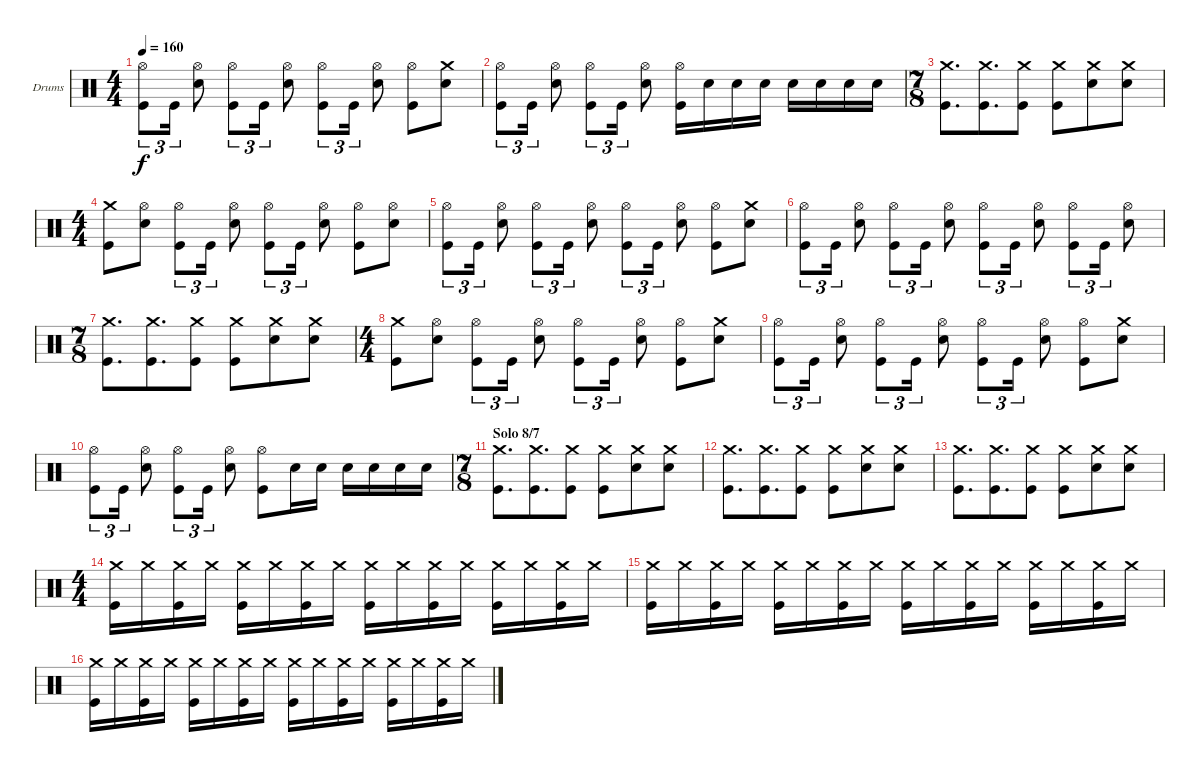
\bracketExtendMode groupsimilarinstruments
\firstSystemTrackNameOrientation horizontal
\otherSystemsTrackNameOrientation horizontal
\track ("Drums" "Drums") {instrument percussion}
\staff {score}
\articulation defaults
\ts (4 4)
\tempo 160
\clef neutral
\ks c
("Hi-Hat (open)" "Kick (hit)").8{tu (3 2) dy f} "Kick (hit)".16{tu (3 2)} ("Hi-Hat (open)" "Snare (hit) 2").8 ("Hi-Hat (open)" "Kick (hit)").8{tu (3 2)} "Kick (hit)".16{tu (3 2)} ("Hi-Hat (open)" "Snare (hit) 2").8 ("Hi-Hat (open)" "Kick (hit)").8{tu (3 2)} "Kick (hit)".16{tu (3 2)} ("Hi-Hat (open)" "Snare (hit) 2").8 ("Hi-Hat (open)" "Kick (hit)").8 ("Snare (hit) 2" "Crash medium (hit)").8 |
("Hi-Hat (open)" "Kick (hit)").8{tu (3 2)} "Kick (hit)".16{tu (3 2)} ("Snare (hit) 2" "Hi-Hat (open)").8 ("Hi-Hat (open)" "Kick (hit)").8{tu (3 2)} "Kick (hit)".16{tu (3 2)} ("Hi-Hat (open)" "Snare (hit) 2").8 ("Hi-Hat (open)" "Kick (hit)").16 "Snare (hit) 2".16 "Snare (hit) 2".16 "Snare (hit) 2".16 "Snare (hit) 2".16 "Snare (hit) 2".16 "Snare (hit) 2".16 "Snare (hit) 2".16 |
\ts (7 8)
("Crash medium (hit)" "Kick (hit)").8{d} ("Crash medium (hit)" "Kick (hit)").8{d} ("Crash medium (hit)" "Kick (hit)").8 ("Crash medium (hit)" "Kick (hit)").8 ("Crash medium (hit)" "Snare (hit) 2").8 ("Crash medium (hit)" "Snare (hit) 2").8 |
\ts (4 4)
("Kick (hit)" "Crash medium (hit)").8 ("Hi-Hat (open)" "Snare (hit) 2").8 ("Hi-Hat (open)" "Kick (hit)").8{tu (3 2)} "Kick (hit)".16{tu (3 2)} ("Hi-Hat (open)" "Snare (hit) 2").8 ("Hi-Hat (open)" "Kick (hit)").8{tu (3 2)} "Kick (hit)".16{tu (3 2)} ("Hi-Hat (open)" "Snare (hit) 2").8 ("Hi-Hat (open)" "Kick (hit)").8 ("Snare (hit) 2" "Hi-Hat (open)").8 |
("Hi-Hat (open)" "Kick (hit)").8{tu (3 2)} "Kick (hit)".16{tu (3 2)} ("Hi-Hat (open)" "Snare (hit) 2").8 ("Hi-Hat (open)" "Kick (hit)").8{tu (3 2)} "Kick (hit)".16{tu (3 2)} ("Hi-Hat (open)" "Snare (hit) 2").8 ("Hi-Hat (open)" "Kick (hit)").8{tu (3 2)} "Kick (hit)".16{tu (3 2)} ("Hi-Hat (open)" "Snare (hit) 2").8 ("Hi-Hat (open)" "Kick (hit)").8 ("Snare (hit) 2" "Crash medium (hit)").8 |
("Hi-Hat (open)" "Kick (hit)").8{tu (3 2)} "Kick (hit)".16{tu (3 2)} ("Snare (hit) 2" "Hi-Hat (open)").8 ("Hi-Hat (open)" "Kick (hit)").8{tu (3 2)} "Kick (hit)".16{tu (3 2)} ("Hi-Hat (open)" "Snare (hit) 2").8 ("Hi-Hat (open)" "Kick (hit)").8{tu (3 2)} "Kick (hit)".16{tu (3 2)} ("Hi-Hat (open)" "Snare (hit) 2").8 ("Hi-Hat (open)" "Kick (hit)").8{tu (3 2)} "Kick (hit)".16{tu (3 2)} ("Hi-Hat (open)" "Snare (hit) 2").8 |
\ts (7 8)
("Crash medium (hit)" "Kick (hit)").8{d} ("Crash medium (hit)" "Kick (hit)").8{d} ("Crash medium (hit)" "Kick (hit)").8 ("Crash medium (hit)" "Kick (hit)").8 ("Crash medium (hit)" "Snare (hit) 2").8 ("Crash medium (hit)" "Snare (hit) 2").8 |
\ts (4 4)
("Kick (hit)" "Crash medium (hit)").8 ("Hi-Hat (open)" "Snare (hit) 2").8 ("Hi-Hat (open)" "Kick (hit)").8{tu (3 2)} "Kick (hit)".16{tu (3 2)} ("Hi-Hat (open)" "Snare (hit) 2").8 ("Hi-Hat (open)" "Kick (hit)").8{tu (3 2)} "Kick (hit)".16{tu (3 2)} ("Hi-Hat (open)" "Snare (hit) 2").8 ("Hi-Hat (open)" "Kick (hit)").8 ("Snare (hit) 2" "Crash medium (hit)").8 |
("Hi-Hat (open)" "Kick (hit)").8{tu (3 2)} "Kick (hit)".16{tu (3 2)} ("Hi-Hat (open)" "Snare (hit) 2").8 ("Hi-Hat (open)" "Kick (hit)").8{tu (3 2)} "Kick (hit)".16{tu (3 2)} ("Hi-Hat (open)" "Snare (hit) 2").8 ("Hi-Hat (open)" "Kick (hit)").8{tu (3 2)} "Kick (hit)".16{tu (3 2)} ("Hi-Hat (open)" "Snare (hit) 2").8 ("Hi-Hat (open)" "Kick (hit)").8 ("Snare (hit) 2" "Crash medium (hit)").8 |
("Hi-Hat (open)" "Kick (hit)").8{tu (3 2)} "Kick (hit)".16{tu (3 2)} ("Snare (hit) 2" "Hi-Hat (open)").8 ("Hi-Hat (open)" "Kick (hit)").8{tu (3 2)} "Kick (hit)".16{tu (3 2)} ("Hi-Hat (open)" "Snare (hit) 2").8 ("Hi-Hat (open)" "Kick (hit)").8 "Snare (hit) 2".16 "Snare (hit) 2".16 "Snare (hit) 2".16 "Snare (hit) 2".16 "Snare (hit) 2".16 "Snare (hit) 2".16 |
\ts (7 8)
\section ("" "Solo 8/7")
("Crash medium (hit)" "Kick (hit)").8{d} ("Crash medium (hit)" "Kick (hit)").8{d} ("Crash medium (hit)" "Kick (hit)").8 ("Crash medium (hit)" "Kick (hit)").8 ("Crash medium (hit)" "Snare (hit) 2").8 ("Crash medium (hit)" "Snare (hit) 2").8 |
("Crash medium (hit)" "Kick (hit)").8{d} ("Crash medium (hit)" "Kick (hit)").8{d} ("Crash medium (hit)" "Kick (hit)").8 ("Crash medium (hit)" "Kick (hit)").8 ("Crash medium (hit)" "Snare (hit) 2").8 ("Crash medium (hit)" "Snare (hit) 2").8 |
("Crash medium (hit)" "Kick (hit)").8{d} ("Crash medium (hit)" "Kick (hit)").8{d} ("Crash medium (hit)" "Kick (hit)").8 ("Crash medium (hit)" "Kick (hit)").8 ("Crash medium (hit)" "Snare (hit) 2").8 ("Crash medium (hit)" "Snare (hit) 2").8 |
\ts (4 4)
("Crash medium (hit)" "Kick (hit)").16 "Crash medium (hit)".16 ("Crash medium (hit)" "Kick (hit)").16 "Crash medium (hit)".16 ("Crash medium (hit)" "Kick (hit)").16 "Crash medium (hit)".16 ("Crash medium (hit)" "Kick (hit)").16 "Crash medium (hit)".16 ("Crash medium (hit)" "Kick (hit)").16 "Crash medium (hit)".16 ("Crash medium (hit)" "Kick (hit)").16 "Crash medium (hit)".16 ("Crash medium (hit)" "Kick (hit)").16 "Crash medium (hit)".16 ("Crash medium (hit)" "Kick (hit)").16 "Crash medium (hit)".16 |
("Crash medium (hit)" "Kick (hit)").16 "Crash medium (hit)".16 ("Crash medium (hit)" "Kick (hit)").16 "Crash medium (hit)".16 ("Crash medium (hit)" "Kick (hit)").16 "Crash medium (hit)".16 ("Crash medium (hit)" "Kick (hit)").16 "Crash medium (hit)".16 ("Crash medium (hit)" "Kick (hit)").16 "Crash medium (hit)".16 ("Crash medium (hit)" "Kick (hit)").16 "Crash medium (hit)".16 ("Crash medium (hit)" "Kick (hit)").16 "Crash medium (hit)".16 ("Crash medium (hit)" "Kick (hit)").16 "Crash medium (hit)".16 |
("Crash medium (hit)" "Kick (hit)").16 "Crash medium (hit)".16 ("Crash medium (hit)" "Kick (hit)").16 "Crash medium (hit)".16 ("Crash medium (hit)" "Kick (hit)").16 "Crash medium (hit)".16 ("Crash medium (hit)" "Kick (hit)").16 "Crash medium (hit)".16 ("Crash medium (hit)" "Kick (hit)").16 "Crash medium (hit)".16 ("Crash medium (hit)" "Kick (hit)").16 "Crash medium (hit)".16 ("Crash medium (hit)" "Kick (hit)").16 "Crash medium (hit)".16 ("Crash medium (hit)" "Kick (hit)").16 "Crash medium (hit)".16
